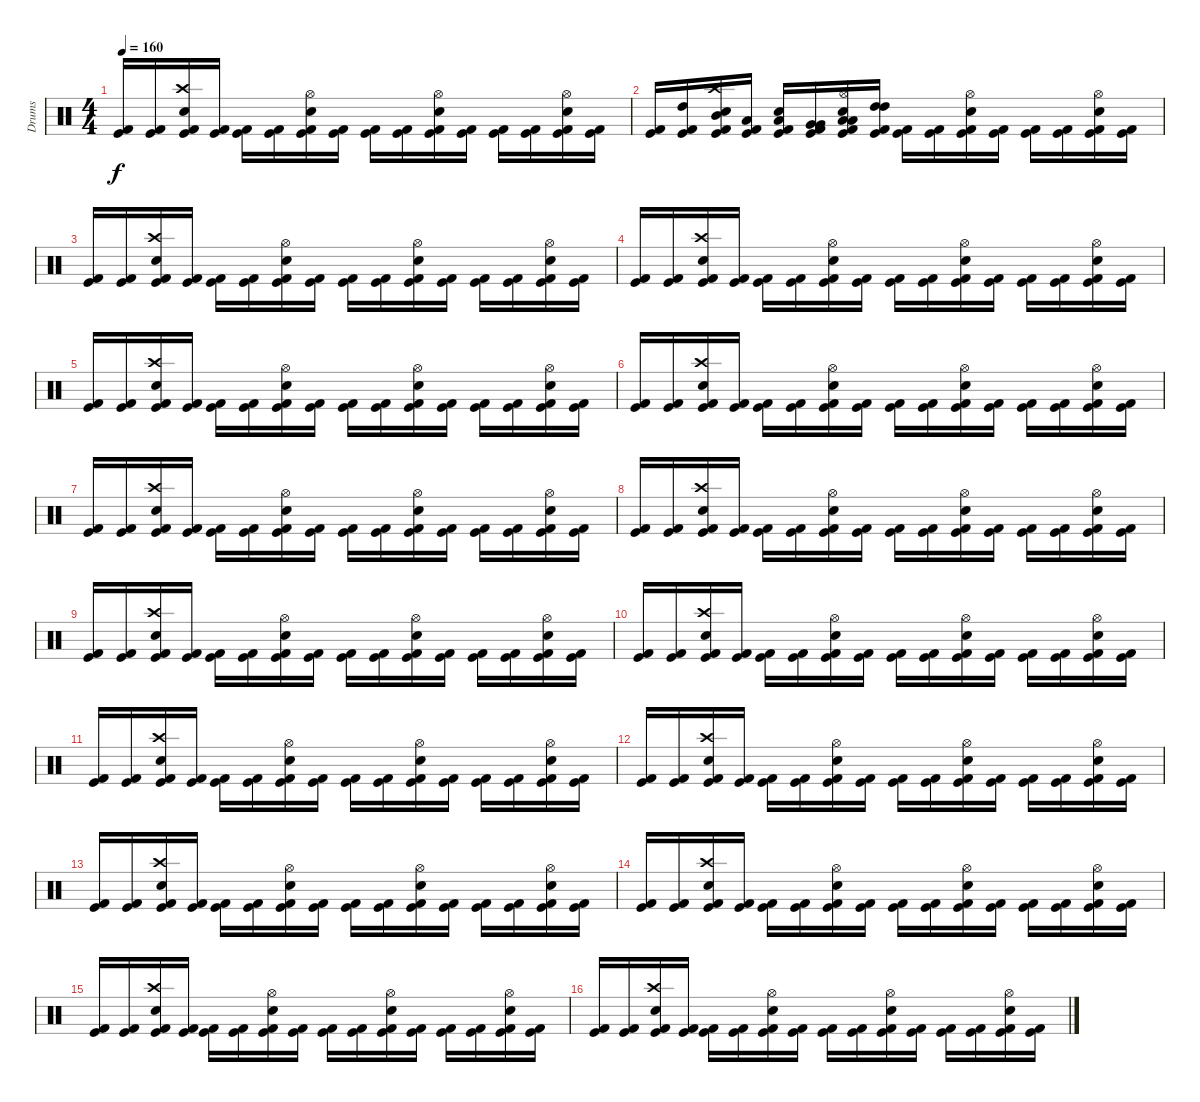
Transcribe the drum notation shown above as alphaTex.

\track ("Drums" "Drums") {instrument percussion}
\staff {score}
\articulation defaults
\ts (4 4)
\tempo 160
\clef neutral
\ks c
("Kick (hit) 2" "Kick (hit)").16{dy f} ("Kick (hit) 2" "Kick (hit)").16 ("Kick (hit) 2" "Kick (hit)" "Crash high (hit)" "Snare (hit) 2").16 ("Kick (hit) 2" "Kick (hit)").16 ("Kick (hit) 2" "Kick (hit)").16 ("Kick (hit) 2" "Kick (hit)").16 ("Kick (hit) 2" "Kick (hit)" "Hi-Hat (open)" "Snare (hit) 2").16 ("Kick (hit) 2" "Kick (hit)").16 ("Kick (hit) 2" "Kick (hit)").16 ("Kick (hit) 2" "Kick (hit)").16 ("Kick (hit) 2" "Kick (hit)" "Hi-Hat (open)" "Snare (hit) 2").16 ("Kick (hit) 2" "Kick (hit)").16 ("Kick (hit) 2" "Kick (hit)").16 ("Kick (hit) 2" "Kick (hit)").16 ("Kick (hit) 2" "Kick (hit)" "Hi-Hat (open)" "Snare (hit) 2").16 ("Kick (hit) 2" "Kick (hit)").16 |
("Kick (hit) 2" "Kick (hit)").16 ("Kick (hit) 2" "Kick (hit)" "High Tom (hit)").16 ("Kick (hit) 2" "Kick (hit)" "Crash high (hit)" "Snare (hit) 2" "Mid Tom (hit)").16 ("Kick (hit) 2" "Kick (hit)" "Low Tom (hit)").16 ("Kick (hit) 2" "Kick (hit)" "Low Tom (hit)" "Snare (hit)").16 ("Kick (hit) 2" "Kick (hit)" "Very Low Tom (hit)" "Very Low Tom (hit)").16 ("Kick (hit) 2" "Kick (hit)" "Hi-Hat (open)" "Snare (hit) 2" "Low Floor Tom (hit)" "Low Floor Tom (hit)").16 ("Kick (hit) 2" "Kick (hit)" "High Tom (hit)" "High Tom (hit)").16 ("Kick (hit) 2" "Kick (hit)").16 ("Kick (hit) 2" "Kick (hit)").16 ("Kick (hit) 2" "Kick (hit)" "Hi-Hat (open)" "Snare (hit) 2").16 ("Kick (hit) 2" "Kick (hit)").16 ("Kick (hit) 2" "Kick (hit)").16 ("Kick (hit) 2" "Kick (hit)").16 ("Kick (hit) 2" "Kick (hit)" "Hi-Hat (open)" "Snare (hit) 2").16 ("Kick (hit) 2" "Kick (hit)").16 |
("Kick (hit) 2" "Kick (hit)").16 ("Kick (hit) 2" "Kick (hit)").16 ("Kick (hit) 2" "Kick (hit)" "Crash high (hit)" "Snare (hit) 2").16 ("Kick (hit) 2" "Kick (hit)").16 ("Kick (hit) 2" "Kick (hit)").16 ("Kick (hit) 2" "Kick (hit)").16 ("Kick (hit) 2" "Kick (hit)" "Hi-Hat (open)" "Snare (hit) 2").16 ("Kick (hit) 2" "Kick (hit)").16 ("Kick (hit) 2" "Kick (hit)").16 ("Kick (hit) 2" "Kick (hit)").16 ("Kick (hit) 2" "Kick (hit)" "Hi-Hat (open)" "Snare (hit) 2").16 ("Kick (hit) 2" "Kick (hit)").16 ("Kick (hit) 2" "Kick (hit)").16 ("Kick (hit) 2" "Kick (hit)").16 ("Kick (hit) 2" "Kick (hit)" "Hi-Hat (open)" "Snare (hit) 2").16 ("Kick (hit) 2" "Kick (hit)").16 |
("Kick (hit) 2" "Kick (hit)").16 ("Kick (hit) 2" "Kick (hit)").16 ("Kick (hit) 2" "Kick (hit)" "Crash high (hit)" "Snare (hit) 2").16 ("Kick (hit) 2" "Kick (hit)").16 ("Kick (hit) 2" "Kick (hit)").16 ("Kick (hit) 2" "Kick (hit)").16 ("Kick (hit) 2" "Kick (hit)" "Hi-Hat (open)" "Snare (hit) 2").16 ("Kick (hit) 2" "Kick (hit)").16 ("Kick (hit) 2" "Kick (hit)").16 ("Kick (hit) 2" "Kick (hit)").16 ("Kick (hit) 2" "Kick (hit)" "Hi-Hat (open)" "Snare (hit) 2").16 ("Kick (hit) 2" "Kick (hit)").16 ("Kick (hit) 2" "Kick (hit)").16 ("Kick (hit) 2" "Kick (hit)").16 ("Kick (hit) 2" "Kick (hit)" "Hi-Hat (open)" "Snare (hit) 2").16 ("Kick (hit) 2" "Kick (hit)").16 |
("Kick (hit) 2" "Kick (hit)").16 ("Kick (hit) 2" "Kick (hit)").16 ("Kick (hit) 2" "Kick (hit)" "Crash high (hit)" "Snare (hit) 2").16 ("Kick (hit) 2" "Kick (hit)").16 ("Kick (hit) 2" "Kick (hit)").16 ("Kick (hit) 2" "Kick (hit)").16 ("Kick (hit) 2" "Kick (hit)" "Hi-Hat (open)" "Snare (hit) 2").16 ("Kick (hit) 2" "Kick (hit)").16 ("Kick (hit) 2" "Kick (hit)").16 ("Kick (hit) 2" "Kick (hit)").16 ("Kick (hit) 2" "Kick (hit)" "Hi-Hat (open)" "Snare (hit) 2").16 ("Kick (hit) 2" "Kick (hit)").16 ("Kick (hit) 2" "Kick (hit)").16 ("Kick (hit) 2" "Kick (hit)").16 ("Kick (hit) 2" "Kick (hit)" "Hi-Hat (open)" "Snare (hit) 2").16 ("Kick (hit) 2" "Kick (hit)").16 |
("Kick (hit) 2" "Kick (hit)").16 ("Kick (hit) 2" "Kick (hit)").16 ("Kick (hit) 2" "Kick (hit)" "Crash high (hit)" "Snare (hit) 2").16 ("Kick (hit) 2" "Kick (hit)").16 ("Kick (hit) 2" "Kick (hit)").16 ("Kick (hit) 2" "Kick (hit)").16 ("Kick (hit) 2" "Kick (hit)" "Hi-Hat (open)" "Snare (hit) 2").16 ("Kick (hit) 2" "Kick (hit)").16 ("Kick (hit) 2" "Kick (hit)").16 ("Kick (hit) 2" "Kick (hit)").16 ("Kick (hit) 2" "Kick (hit)" "Hi-Hat (open)" "Snare (hit) 2").16 ("Kick (hit) 2" "Kick (hit)").16 ("Kick (hit) 2" "Kick (hit)").16 ("Kick (hit) 2" "Kick (hit)").16 ("Kick (hit) 2" "Kick (hit)" "Hi-Hat (open)" "Snare (hit) 2").16 ("Kick (hit) 2" "Kick (hit)").16 |
("Kick (hit) 2" "Kick (hit)").16 ("Kick (hit) 2" "Kick (hit)").16 ("Kick (hit) 2" "Kick (hit)" "Crash high (hit)" "Snare (hit) 2").16 ("Kick (hit) 2" "Kick (hit)").16 ("Kick (hit) 2" "Kick (hit)").16 ("Kick (hit) 2" "Kick (hit)").16 ("Kick (hit) 2" "Kick (hit)" "Hi-Hat (open)" "Snare (hit) 2").16 ("Kick (hit) 2" "Kick (hit)").16 ("Kick (hit) 2" "Kick (hit)").16 ("Kick (hit) 2" "Kick (hit)").16 ("Kick (hit) 2" "Kick (hit)" "Hi-Hat (open)" "Snare (hit) 2").16 ("Kick (hit) 2" "Kick (hit)").16 ("Kick (hit) 2" "Kick (hit)").16 ("Kick (hit) 2" "Kick (hit)").16 ("Kick (hit) 2" "Kick (hit)" "Hi-Hat (open)" "Snare (hit) 2").16 ("Kick (hit) 2" "Kick (hit)").16 |
("Kick (hit) 2" "Kick (hit)").16 ("Kick (hit) 2" "Kick (hit)").16 ("Kick (hit) 2" "Kick (hit)" "Crash high (hit)" "Snare (hit) 2").16 ("Kick (hit) 2" "Kick (hit)").16 ("Kick (hit) 2" "Kick (hit)").16 ("Kick (hit) 2" "Kick (hit)").16 ("Kick (hit) 2" "Kick (hit)" "Hi-Hat (open)" "Snare (hit) 2").16 ("Kick (hit) 2" "Kick (hit)").16 ("Kick (hit) 2" "Kick (hit)").16 ("Kick (hit) 2" "Kick (hit)").16 ("Kick (hit) 2" "Kick (hit)" "Hi-Hat (open)" "Snare (hit) 2").16 ("Kick (hit) 2" "Kick (hit)").16 ("Kick (hit) 2" "Kick (hit)").16 ("Kick (hit) 2" "Kick (hit)").16 ("Kick (hit) 2" "Kick (hit)" "Hi-Hat (open)" "Snare (hit) 2").16 ("Kick (hit) 2" "Kick (hit)").16 |
("Kick (hit) 2" "Kick (hit)").16 ("Kick (hit) 2" "Kick (hit)").16 ("Kick (hit) 2" "Kick (hit)" "Crash high (hit)" "Snare (hit) 2").16 ("Kick (hit) 2" "Kick (hit)").16 ("Kick (hit) 2" "Kick (hit)").16 ("Kick (hit) 2" "Kick (hit)").16 ("Kick (hit) 2" "Kick (hit)" "Hi-Hat (open)" "Snare (hit) 2").16 ("Kick (hit) 2" "Kick (hit)").16 ("Kick (hit) 2" "Kick (hit)").16 ("Kick (hit) 2" "Kick (hit)").16 ("Kick (hit) 2" "Kick (hit)" "Hi-Hat (open)" "Snare (hit) 2").16 ("Kick (hit) 2" "Kick (hit)").16 ("Kick (hit) 2" "Kick (hit)").16 ("Kick (hit) 2" "Kick (hit)").16 ("Kick (hit) 2" "Kick (hit)" "Hi-Hat (open)" "Snare (hit) 2").16 ("Kick (hit) 2" "Kick (hit)").16 |
("Kick (hit) 2" "Kick (hit)").16 ("Kick (hit) 2" "Kick (hit)").16 ("Kick (hit) 2" "Kick (hit)" "Crash high (hit)" "Snare (hit) 2").16 ("Kick (hit) 2" "Kick (hit)").16 ("Kick (hit) 2" "Kick (hit)").16 ("Kick (hit) 2" "Kick (hit)").16 ("Kick (hit) 2" "Kick (hit)" "Hi-Hat (open)" "Snare (hit) 2").16 ("Kick (hit) 2" "Kick (hit)").16 ("Kick (hit) 2" "Kick (hit)").16 ("Kick (hit) 2" "Kick (hit)").16 ("Kick (hit) 2" "Kick (hit)" "Hi-Hat (open)" "Snare (hit) 2").16 ("Kick (hit) 2" "Kick (hit)").16 ("Kick (hit) 2" "Kick (hit)").16 ("Kick (hit) 2" "Kick (hit)").16 ("Kick (hit) 2" "Kick (hit)" "Hi-Hat (open)" "Snare (hit) 2").16 ("Kick (hit) 2" "Kick (hit)").16 |
("Kick (hit) 2" "Kick (hit)").16 ("Kick (hit) 2" "Kick (hit)").16 ("Kick (hit) 2" "Kick (hit)" "Crash high (hit)" "Snare (hit) 2").16 ("Kick (hit) 2" "Kick (hit)").16 ("Kick (hit) 2" "Kick (hit)").16 ("Kick (hit) 2" "Kick (hit)").16 ("Kick (hit) 2" "Kick (hit)" "Hi-Hat (open)" "Snare (hit) 2").16 ("Kick (hit) 2" "Kick (hit)").16 ("Kick (hit) 2" "Kick (hit)").16 ("Kick (hit) 2" "Kick (hit)").16 ("Kick (hit) 2" "Kick (hit)" "Hi-Hat (open)" "Snare (hit) 2").16 ("Kick (hit) 2" "Kick (hit)").16 ("Kick (hit) 2" "Kick (hit)").16 ("Kick (hit) 2" "Kick (hit)").16 ("Kick (hit) 2" "Kick (hit)" "Hi-Hat (open)" "Snare (hit) 2").16 ("Kick (hit) 2" "Kick (hit)").16 |
("Kick (hit) 2" "Kick (hit)").16 ("Kick (hit) 2" "Kick (hit)").16 ("Kick (hit) 2" "Kick (hit)" "Crash high (hit)" "Snare (hit) 2").16 ("Kick (hit) 2" "Kick (hit)").16 ("Kick (hit) 2" "Kick (hit)").16 ("Kick (hit) 2" "Kick (hit)").16 ("Kick (hit) 2" "Kick (hit)" "Hi-Hat (open)" "Snare (hit) 2").16 ("Kick (hit) 2" "Kick (hit)").16 ("Kick (hit) 2" "Kick (hit)").16 ("Kick (hit) 2" "Kick (hit)").16 ("Kick (hit) 2" "Kick (hit)" "Hi-Hat (open)" "Snare (hit) 2").16 ("Kick (hit) 2" "Kick (hit)").16 ("Kick (hit) 2" "Kick (hit)").16 ("Kick (hit) 2" "Kick (hit)").16 ("Kick (hit) 2" "Kick (hit)" "Hi-Hat (open)" "Snare (hit) 2").16 ("Kick (hit) 2" "Kick (hit)").16 |
("Kick (hit) 2" "Kick (hit)").16 ("Kick (hit) 2" "Kick (hit)").16 ("Kick (hit) 2" "Kick (hit)" "Crash high (hit)" "Snare (hit) 2").16 ("Kick (hit) 2" "Kick (hit)").16 ("Kick (hit) 2" "Kick (hit)").16 ("Kick (hit) 2" "Kick (hit)").16 ("Kick (hit) 2" "Kick (hit)" "Hi-Hat (open)" "Snare (hit) 2").16 ("Kick (hit) 2" "Kick (hit)").16 ("Kick (hit) 2" "Kick (hit)").16 ("Kick (hit) 2" "Kick (hit)").16 ("Kick (hit) 2" "Kick (hit)" "Hi-Hat (open)" "Snare (hit) 2").16 ("Kick (hit) 2" "Kick (hit)").16 ("Kick (hit) 2" "Kick (hit)").16 ("Kick (hit) 2" "Kick (hit)").16 ("Kick (hit) 2" "Kick (hit)" "Hi-Hat (open)" "Snare (hit) 2").16 ("Kick (hit) 2" "Kick (hit)").16 |
("Kick (hit) 2" "Kick (hit)").16 ("Kick (hit) 2" "Kick (hit)").16 ("Kick (hit) 2" "Kick (hit)" "Crash high (hit)" "Snare (hit) 2").16 ("Kick (hit) 2" "Kick (hit)").16 ("Kick (hit) 2" "Kick (hit)").16 ("Kick (hit) 2" "Kick (hit)").16 ("Kick (hit) 2" "Kick (hit)" "Hi-Hat (open)" "Snare (hit) 2").16 ("Kick (hit) 2" "Kick (hit)").16 ("Kick (hit) 2" "Kick (hit)").16 ("Kick (hit) 2" "Kick (hit)").16 ("Kick (hit) 2" "Kick (hit)" "Hi-Hat (open)" "Snare (hit) 2").16 ("Kick (hit) 2" "Kick (hit)").16 ("Kick (hit) 2" "Kick (hit)").16 ("Kick (hit) 2" "Kick (hit)").16 ("Kick (hit) 2" "Kick (hit)" "Hi-Hat (open)" "Snare (hit) 2").16 ("Kick (hit) 2" "Kick (hit)").16 |
("Kick (hit) 2" "Kick (hit)").16 ("Kick (hit) 2" "Kick (hit)").16 ("Kick (hit) 2" "Kick (hit)" "Crash high (hit)" "Snare (hit) 2").16 ("Kick (hit) 2" "Kick (hit)").16 ("Kick (hit) 2" "Kick (hit)").16 ("Kick (hit) 2" "Kick (hit)").16 ("Kick (hit) 2" "Kick (hit)" "Hi-Hat (open)" "Snare (hit) 2").16 ("Kick (hit) 2" "Kick (hit)").16 ("Kick (hit) 2" "Kick (hit)").16 ("Kick (hit) 2" "Kick (hit)").16 ("Kick (hit) 2" "Kick (hit)" "Hi-Hat (open)" "Snare (hit) 2").16 ("Kick (hit) 2" "Kick (hit)").16 ("Kick (hit) 2" "Kick (hit)").16 ("Kick (hit) 2" "Kick (hit)").16 ("Kick (hit) 2" "Kick (hit)" "Hi-Hat (open)" "Snare (hit) 2").16 ("Kick (hit) 2" "Kick (hit)").16 |
("Kick (hit) 2" "Kick (hit)").16 ("Kick (hit) 2" "Kick (hit)").16 ("Kick (hit) 2" "Kick (hit)" "Crash high (hit)" "Snare (hit) 2").16 ("Kick (hit) 2" "Kick (hit)").16 ("Kick (hit) 2" "Kick (hit)").16 ("Kick (hit) 2" "Kick (hit)").16 ("Kick (hit) 2" "Kick (hit)" "Hi-Hat (open)" "Snare (hit) 2").16 ("Kick (hit) 2" "Kick (hit)").16 ("Kick (hit) 2" "Kick (hit)").16 ("Kick (hit) 2" "Kick (hit)").16 ("Kick (hit) 2" "Kick (hit)" "Hi-Hat (open)" "Snare (hit) 2").16 ("Kick (hit) 2" "Kick (hit)").16 ("Kick (hit) 2" "Kick (hit)").16 ("Kick (hit) 2" "Kick (hit)").16 ("Kick (hit) 2" "Kick (hit)" "Hi-Hat (open)" "Snare (hit) 2").16 ("Kick (hit) 2" "Kick (hit)").16
